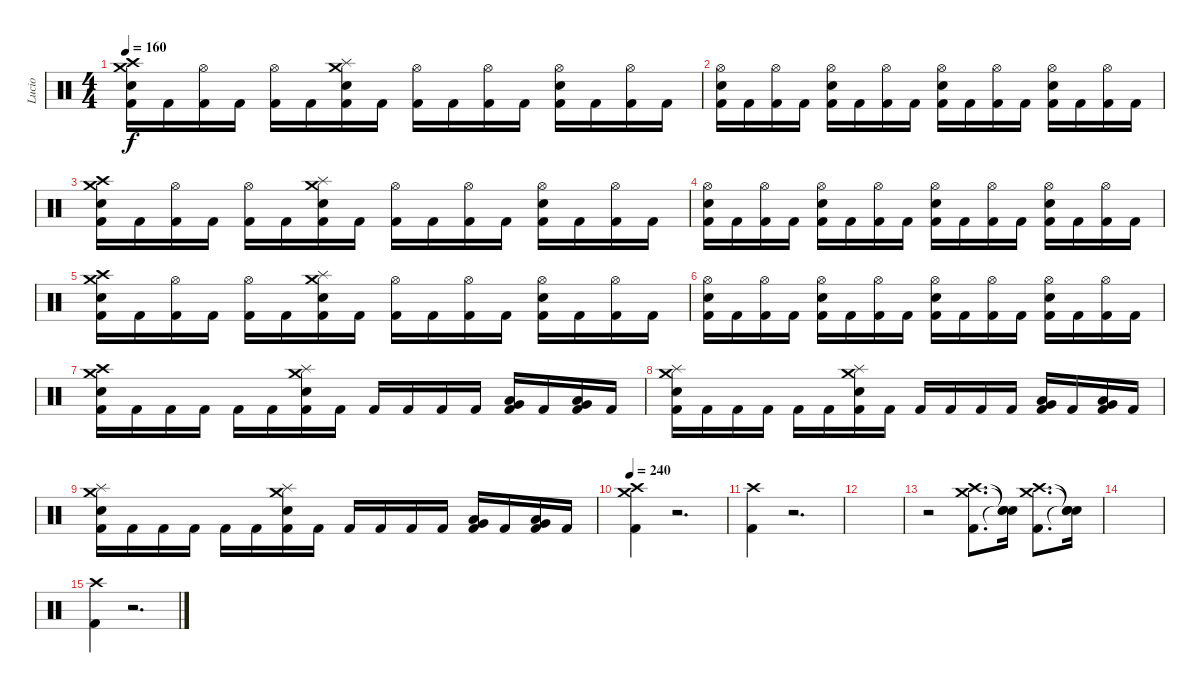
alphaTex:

\track ("Lucio" "Lucio") {instrument percussion}
\staff {score}
\articulation defaults
\ts (4 4)
\tempo 160
\clef neutral
\ks c
("Crash medium (hit)" "Crash high (hit)" "Electric Snare (hit)" "Kick (hit) 2").16{dy f} "Kick (hit) 2".16 ("Hi-Hat (open)" "Kick (hit) 2").16 "Kick (hit) 2".16 ("Hi-Hat (open)" "Kick (hit) 2").16 "Kick (hit) 2".16 ("Crash medium (hit)" "Splash (hit)" "Electric Snare (hit)" "Kick (hit) 2").16 "Kick (hit) 2".16 ("Hi-Hat (open)" "Kick (hit) 2").16 "Kick (hit) 2".16 ("Hi-Hat (open)" "Kick (hit) 2").16 "Kick (hit) 2".16 ("Hi-Hat (open)" "Electric Snare (hit)" "Kick (hit) 2").16 "Kick (hit) 2".16 ("Hi-Hat (open)" "Kick (hit) 2").16 "Kick (hit) 2".16 |
("Hi-Hat (open)" "Electric Snare (hit)" "Kick (hit) 2").16 "Kick (hit) 2".16 ("Hi-Hat (open)" "Kick (hit) 2").16 "Kick (hit) 2".16 ("Hi-Hat (open)" "Electric Snare (hit)" "Kick (hit) 2").16 "Kick (hit) 2".16 ("Hi-Hat (open)" "Kick (hit) 2").16 "Kick (hit) 2".16 ("Hi-Hat (open)" "Electric Snare (hit)" "Kick (hit) 2").16 "Kick (hit) 2".16 ("Hi-Hat (open)" "Kick (hit) 2").16 "Kick (hit) 2".16 ("Hi-Hat (open)" "Electric Snare (hit)" "Kick (hit) 2").16 "Kick (hit) 2".16 ("Hi-Hat (open)" "Kick (hit) 2").16 "Kick (hit) 2".16 |
("Crash medium (hit)" "Crash high (hit)" "Electric Snare (hit)" "Kick (hit) 2").16 "Kick (hit) 2".16 ("Hi-Hat (open)" "Kick (hit) 2").16 "Kick (hit) 2".16 ("Hi-Hat (open)" "Kick (hit) 2").16 "Kick (hit) 2".16 ("Crash medium (hit)" "Splash (hit)" "Electric Snare (hit)" "Kick (hit) 2").16 "Kick (hit) 2".16 ("Hi-Hat (open)" "Kick (hit) 2").16 "Kick (hit) 2".16 ("Hi-Hat (open)" "Kick (hit) 2").16 "Kick (hit) 2".16 ("Hi-Hat (open)" "Electric Snare (hit)" "Kick (hit) 2").16 "Kick (hit) 2".16 ("Hi-Hat (open)" "Kick (hit) 2").16 "Kick (hit) 2".16 |
("Hi-Hat (open)" "Electric Snare (hit)" "Kick (hit) 2").16 "Kick (hit) 2".16 ("Hi-Hat (open)" "Kick (hit) 2").16 "Kick (hit) 2".16 ("Hi-Hat (open)" "Electric Snare (hit)" "Kick (hit) 2").16 "Kick (hit) 2".16 ("Hi-Hat (open)" "Kick (hit) 2").16 "Kick (hit) 2".16 ("Hi-Hat (open)" "Electric Snare (hit)" "Kick (hit) 2").16 "Kick (hit) 2".16 ("Hi-Hat (open)" "Kick (hit) 2").16 "Kick (hit) 2".16 ("Hi-Hat (open)" "Electric Snare (hit)" "Kick (hit) 2").16 "Kick (hit) 2".16 ("Hi-Hat (open)" "Kick (hit) 2").16 "Kick (hit) 2".16 |
("Crash medium (hit)" "Crash high (hit)" "Electric Snare (hit)" "Kick (hit) 2").16 "Kick (hit) 2".16 ("Hi-Hat (open)" "Kick (hit) 2").16 "Kick (hit) 2".16 ("Hi-Hat (open)" "Kick (hit) 2").16 "Kick (hit) 2".16 ("Crash medium (hit)" "Splash (hit)" "Electric Snare (hit)" "Kick (hit) 2").16 "Kick (hit) 2".16 ("Hi-Hat (open)" "Kick (hit) 2").16 "Kick (hit) 2".16 ("Hi-Hat (open)" "Kick (hit) 2").16 "Kick (hit) 2".16 ("Hi-Hat (open)" "Electric Snare (hit)" "Kick (hit) 2").16 "Kick (hit) 2".16 ("Hi-Hat (open)" "Kick (hit) 2").16 "Kick (hit) 2".16 |
("Hi-Hat (open)" "Electric Snare (hit)" "Kick (hit) 2").16 "Kick (hit) 2".16 ("Hi-Hat (open)" "Kick (hit) 2").16 "Kick (hit) 2".16 ("Hi-Hat (open)" "Electric Snare (hit)" "Kick (hit) 2").16 "Kick (hit) 2".16 ("Hi-Hat (open)" "Kick (hit) 2").16 "Kick (hit) 2".16 ("Hi-Hat (open)" "Electric Snare (hit)" "Kick (hit) 2").16 "Kick (hit) 2".16 ("Hi-Hat (open)" "Kick (hit) 2").16 "Kick (hit) 2".16 ("Hi-Hat (open)" "Electric Snare (hit)" "Kick (hit) 2").16 "Kick (hit) 2".16 ("Hi-Hat (open)" "Kick (hit) 2").16 "Kick (hit) 2".16 |
("Crash medium (hit)" "Crash high (hit)" "Electric Snare (hit)" "Kick (hit) 2").16 "Kick (hit) 2".16 "Kick (hit) 2".16 "Kick (hit) 2".16 "Kick (hit) 2".16 "Kick (hit) 2".16 ("Crash medium (hit)" "Splash (hit)" "Electric Snare (hit)" "Kick (hit) 2").16 "Kick (hit) 2".16 "Kick (hit) 2".16 "Kick (hit) 2".16 "Kick (hit) 2".16 "Kick (hit) 2".16 ("Low Tom (hit)" "Very Low Tom (hit)" "Kick (hit) 2").16 "Kick (hit) 2".16 ("Low Tom (hit)" "Very Low Tom (hit)" "Kick (hit) 2").16 "Kick (hit) 2".16 |
("Crash medium (hit)" "Splash (hit)" "Electric Snare (hit)" "Kick (hit) 2").16 "Kick (hit) 2".16 "Kick (hit) 2".16 "Kick (hit) 2".16 "Kick (hit) 2".16 "Kick (hit) 2".16 ("Crash medium (hit)" "Splash (hit)" "Electric Snare (hit)" "Kick (hit) 2").16 "Kick (hit) 2".16 "Kick (hit) 2".16 "Kick (hit) 2".16 "Kick (hit) 2".16 "Kick (hit) 2".16 ("Low Tom (hit)" "Very Low Tom (hit)" "Kick (hit) 2").16 "Kick (hit) 2".16 ("Low Tom (hit)" "Very Low Tom (hit)" "Kick (hit) 2").16 "Kick (hit) 2".16 |
("Crash medium (hit)" "Splash (hit)" "Electric Snare (hit)" "Kick (hit) 2").16 "Kick (hit) 2".16 "Kick (hit) 2".16 "Kick (hit) 2".16 "Kick (hit) 2".16 "Kick (hit) 2".16 ("Crash medium (hit)" "Splash (hit)" "Electric Snare (hit)" "Kick (hit) 2").16 "Kick (hit) 2".16 "Kick (hit) 2".16 "Kick (hit) 2".16 "Kick (hit) 2".16 "Kick (hit) 2".16 ("Low Tom (hit)" "Very Low Tom (hit)" "Kick (hit) 2").16 "Kick (hit) 2".16 ("Low Tom (hit)" "Very Low Tom (hit)" "Kick (hit) 2").16 "Kick (hit) 2".16 |
\tempo 240
("Crash medium (hit)" "Crash high (hit)" "Kick (hit) 2").4 r.2{d volume 0} |
("Crash high (hit)" "Kick (hit) 2").4{volume 16} r.2{d volume 0} |
|
r.2{volume 16} ("Crash medium (hit)" "Crash high (hit)" "Kick (hit) 2").8{d} ("Snare (hit)"{t} "Snare (hit)"{t} "Snare (hit)"{t}).16{volume 0} ("Crash medium (hit)" "Crash high (hit)" "Kick (hit) 2").8{d volume 16} ("Snare (hit)"{t} "Snare (hit)"{t} "Snare (hit)"{t}).16{volume 0} |
|
("Crash high (hit)" "Kick (hit) 2").4{volume 16} r.2{d volume 0}
